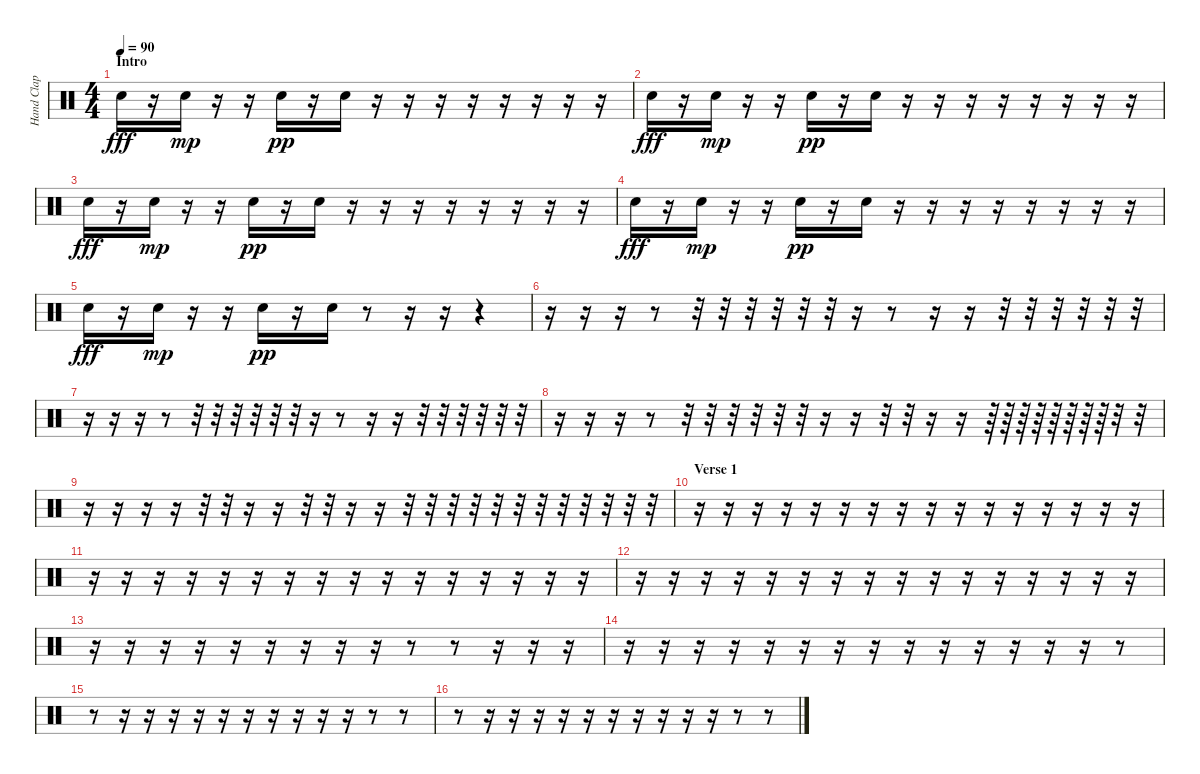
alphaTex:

\track ("Hand Clap" "Hand Clap") {instrument percussion}
\staff {score}
\articulation defaults
\ts (4 4)
\section ("" "Intro")
\tempo 90
\clef neutral
\ks c "Hand Clap (hit)".16{dy fff}
r.16 "Hand Clap (hit)".16{dy mp} r.16 r.16 "Hand Clap (hit)".16{dy pp} r.16 "Hand Clap (hit)".16 r.16 r.16 r.16 r.16 r.16 r.16 r.16 r.16 |
"Hand Clap (hit)".16{dy fff} r.16 "Hand Clap (hit)".16{dy mp} r.16 r.16 "Hand Clap (hit)".16{dy pp} r.16 "Hand Clap (hit)".16 r.16 r.16 r.16 r.16 r.16 r.16 r.16 r.16 |
"Hand Clap (hit)".16{dy fff} r.16 "Hand Clap (hit)".16{dy mp} r.16 r.16 "Hand Clap (hit)".16{dy pp} r.16 "Hand Clap (hit)".16 r.16 r.16 r.16 r.16 r.16 r.16 r.16 r.16 |
"Hand Clap (hit)".16{dy fff} r.16 "Hand Clap (hit)".16{dy mp} r.16 r.16 "Hand Clap (hit)".16{dy pp} r.16 "Hand Clap (hit)".16 r.16 r.16 r.16 r.16 r.16 r.16 r.16 r.16 |
"Hand Clap (hit)".16{dy fff} r.16 "Hand Clap (hit)".16{dy mp} r.16 r.16 "Hand Clap (hit)".16{dy pp} r.16 "Hand Clap (hit)".16 r.8 r.16 r.16 r.4 |
r.16 r.16 r.16 r.8 r.32 r.32 r.32 r.32 r.32 r.32 r.16 r.8 r.16 r.16 r.32 r.32 r.32 r.32 r.32 r.32 |
r.16 r.16 r.16 r.8 r.32 r.32 r.32 r.32 r.32 r.32 r.16 r.8 r.16 r.16 r.32 r.32 r.32 r.32 r.32 r.32 |
r.16 r.16 r.16 r.8 r.32 r.32 r.32 r.32 r.32 r.32 r.16 r.16 r.32 r.32 r.16 r.16 r.64 r.64 r.64 r.64 r.64 r.64 r.64 r.64 r.32 r.32 |
r.16 r.16 r.16 r.16 r.32 r.32 r.16 r.16 r.32 r.32 r.16 r.16 r.32 r.32 r.32 r.32 r.32 r.32 r.32 r.32 r.32 r.32 r.32 r.32 |
\section ("" "Verse 1")
r.16 r.16 r.16 r.16 r.16 r.16 r.16 r.16 r.16 r.16 r.16 r.16 r.16 r.16 r.16 r.16 |
r.16 r.16 r.16 r.16 r.16 r.16 r.16 r.16 r.16 r.16 r.16 r.16 r.16 r.16 r.16 r.16 |
r.16 r.16 r.16 r.16 r.16 r.16 r.16 r.16 r.16 r.16 r.16 r.16 r.16 r.16 r.16 r.16 |
r.16 r.16 r.16 r.16 r.16 r.16 r.16 r.16 r.16 r.8 r.8 r.16 r.16 r.16 |
r.16 r.16 r.16 r.16 r.16 r.16 r.16 r.16 r.16 r.16 r.16 r.16 r.16 r.16 r.8 |
r.8 r.16 r.16 r.16 r.16 r.16 r.16 r.16 r.16 r.16 r.16 r.8 r.8 |
r.8 r.16 r.16 r.16 r.16 r.16 r.16 r.16 r.16 r.16 r.16 r.8 r.8
